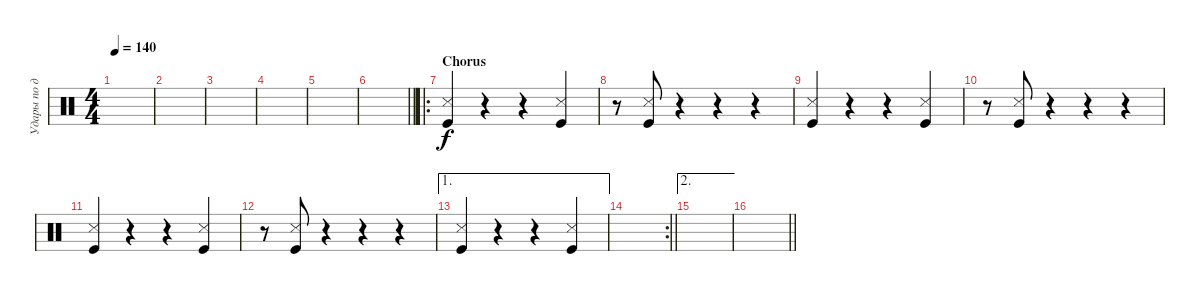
\track ("Удары по деке" "Удары по д") {instrument percussion}
\staff {score}
\articulation defaults
\ts (4 4)
\tempo 140
\clef neutral
\ks c
|
|
|
|
|
\barLineRight lightlight
|
\ro
\section ("" "Chorus")
("Snare (side stick) 3" "Kick (hit)").4 r.4 r.4 ("Snare (side stick) 3" "Kick (hit)").4 |
r.8 ("Snare (side stick) 3" "Kick (hit)").8 r.4 r.4 r.4 |
("Snare (side stick) 3" "Kick (hit)").4 r.4 r.4 ("Snare (side stick) 3" "Kick (hit)").4 |
r.8 ("Snare (side stick) 3" "Kick (hit)").8 r.4 r.4 r.4 |
("Snare (side stick) 3" "Kick (hit)").4 r.4 r.4 ("Snare (side stick) 3" "Kick (hit)").4 |
r.8 ("Snare (side stick) 3" "Kick (hit)").8 r.4 r.4 r.4 |
\ae 1
("Snare (side stick) 3" "Kick (hit)").4 r.4 r.4 ("Snare (side stick) 3" "Kick (hit)").4 |
\rc 2
\barLineRight lightlight
|
\ae 2
|
\barLineRight lightlight
